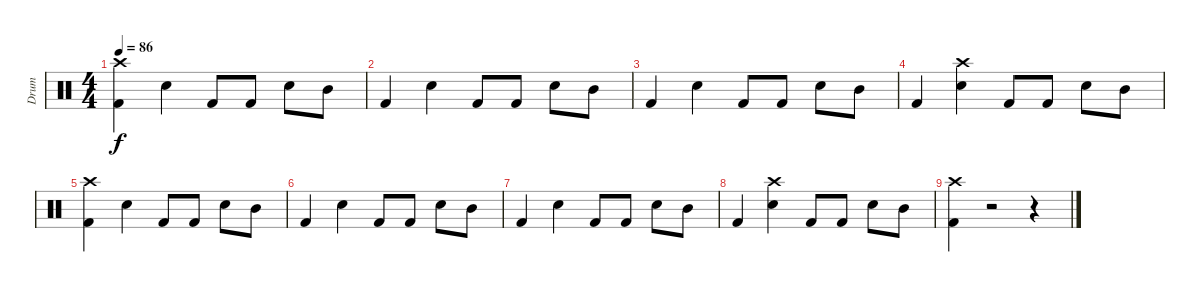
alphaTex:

\track ("Drum" "Drum") {instrument percussion}
\staff {score}
\articulation defaults
\ts (4 4)
\tempo 86
\clef neutral
\ks c
("Crash high (hit)" "Kick (hit) 2").4{dy f} "Electric Snare (hit)".4 "Kick (hit) 2".8 "Kick (hit) 2".8 "Electric Snare (hit)".8 "Mid Tom (hit)".8 |
"Kick (hit) 2".4 "Electric Snare (hit)".4 "Kick (hit) 2".8 "Kick (hit) 2".8 "Electric Snare (hit)".8 "Mid Tom (hit)".8 |
"Kick (hit) 2".4 "Electric Snare (hit)".4 "Kick (hit) 2".8 "Kick (hit) 2".8 "Electric Snare (hit)".8 "Mid Tom (hit)".8 |
"Kick (hit) 2".4 ("Crash high (hit)" "Electric Snare (hit)").4 "Kick (hit) 2".8 "Kick (hit) 2".8 "Electric Snare (hit)".8 "Mid Tom (hit)".8 |
("Crash high (hit)" "Kick (hit) 2").4 "Electric Snare (hit)".4 "Kick (hit) 2".8 "Kick (hit) 2".8 "Electric Snare (hit)".8 "Mid Tom (hit)".8 |
"Kick (hit) 2".4 "Electric Snare (hit)".4 "Kick (hit) 2".8 "Kick (hit) 2".8 "Electric Snare (hit)".8 "Mid Tom (hit)".8 |
"Kick (hit) 2".4 "Electric Snare (hit)".4 "Kick (hit) 2".8 "Kick (hit) 2".8 "Electric Snare (hit)".8 "Mid Tom (hit)".8 |
"Kick (hit) 2".4 ("Crash high (hit)" "Electric Snare (hit)").4 "Kick (hit) 2".8 "Kick (hit) 2".8 "Electric Snare (hit)".8 "Mid Tom (hit)".8 |
("Crash high (hit)" "Kick (hit) 2").4 r.2 r.4
